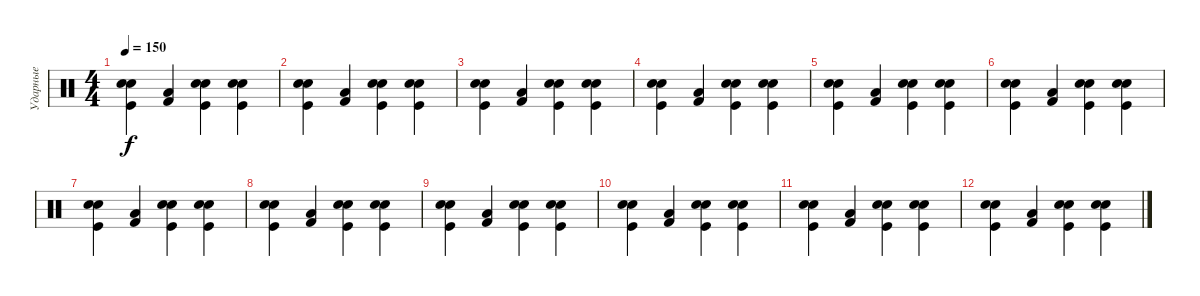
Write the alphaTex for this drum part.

\track ("Ударные" "Ударные") {instrument percussion}
\staff {score}
\articulation defaults
\ts (4 4)
\tempo 150
\clef neutral
\ks c
("Electric Snare (hit)" "Kick (hit)" "Snare (hit) 2").4{dy f} ("Kick (hit) 2" "Low Tom (hit)").4 ("Electric Snare (hit)" "Kick (hit)" "Snare (hit) 2").4 ("Electric Snare (hit)" "Kick (hit)" "Snare (hit) 2").4 |
("Electric Snare (hit)" "Kick (hit)" "Snare (hit) 2").4 ("Kick (hit) 2" "Low Tom (hit)").4 ("Electric Snare (hit)" "Kick (hit)" "Snare (hit) 2").4 ("Electric Snare (hit)" "Kick (hit)" "Snare (hit) 2").4 |
("Electric Snare (hit)" "Kick (hit)" "Snare (hit) 2").4 ("Kick (hit) 2" "Low Tom (hit)").4 ("Electric Snare (hit)" "Kick (hit)" "Snare (hit) 2").4 ("Electric Snare (hit)" "Kick (hit)" "Snare (hit) 2").4 |
("Electric Snare (hit)" "Kick (hit)" "Snare (hit) 2").4 ("Kick (hit) 2" "Low Tom (hit)").4 ("Electric Snare (hit)" "Kick (hit)" "Snare (hit) 2").4 ("Electric Snare (hit)" "Kick (hit)" "Snare (hit) 2").4 |
("Electric Snare (hit)" "Kick (hit)" "Snare (hit) 2").4 ("Kick (hit) 2" "Low Tom (hit)").4 ("Electric Snare (hit)" "Kick (hit)" "Snare (hit) 2").4 ("Electric Snare (hit)" "Kick (hit)" "Snare (hit) 2").4 |
("Electric Snare (hit)" "Kick (hit)" "Snare (hit) 2").4 ("Kick (hit) 2" "Low Tom (hit)").4 ("Electric Snare (hit)" "Kick (hit)" "Snare (hit) 2").4 ("Electric Snare (hit)" "Kick (hit)" "Snare (hit) 2").4 |
("Electric Snare (hit)" "Kick (hit)" "Snare (hit) 2").4 ("Kick (hit) 2" "Low Tom (hit)").4 ("Electric Snare (hit)" "Kick (hit)" "Snare (hit) 2").4 ("Electric Snare (hit)" "Kick (hit)" "Snare (hit) 2").4 |
("Electric Snare (hit)" "Kick (hit)" "Snare (hit) 2").4 ("Kick (hit) 2" "Low Tom (hit)").4 ("Electric Snare (hit)" "Kick (hit)" "Snare (hit) 2").4 ("Electric Snare (hit)" "Kick (hit)" "Snare (hit) 2").4 |
("Electric Snare (hit)" "Kick (hit)" "Snare (hit) 2").4 ("Kick (hit) 2" "Low Tom (hit)").4 ("Electric Snare (hit)" "Kick (hit)" "Snare (hit) 2").4 ("Electric Snare (hit)" "Kick (hit)" "Snare (hit) 2").4 |
("Electric Snare (hit)" "Kick (hit)" "Snare (hit) 2").4 ("Kick (hit) 2" "Low Tom (hit)").4 ("Electric Snare (hit)" "Kick (hit)" "Snare (hit) 2").4 ("Electric Snare (hit)" "Kick (hit)" "Snare (hit) 2").4 |
("Electric Snare (hit)" "Kick (hit)" "Snare (hit) 2").4 ("Kick (hit) 2" "Low Tom (hit)").4 ("Electric Snare (hit)" "Kick (hit)" "Snare (hit) 2").4 ("Electric Snare (hit)" "Kick (hit)" "Snare (hit) 2").4 |
("Electric Snare (hit)" "Kick (hit)" "Snare (hit) 2").4 ("Kick (hit) 2" "Low Tom (hit)").4 ("Electric Snare (hit)" "Kick (hit)" "Snare (hit) 2").4 ("Electric Snare (hit)" "Kick (hit)" "Snare (hit) 2").4
